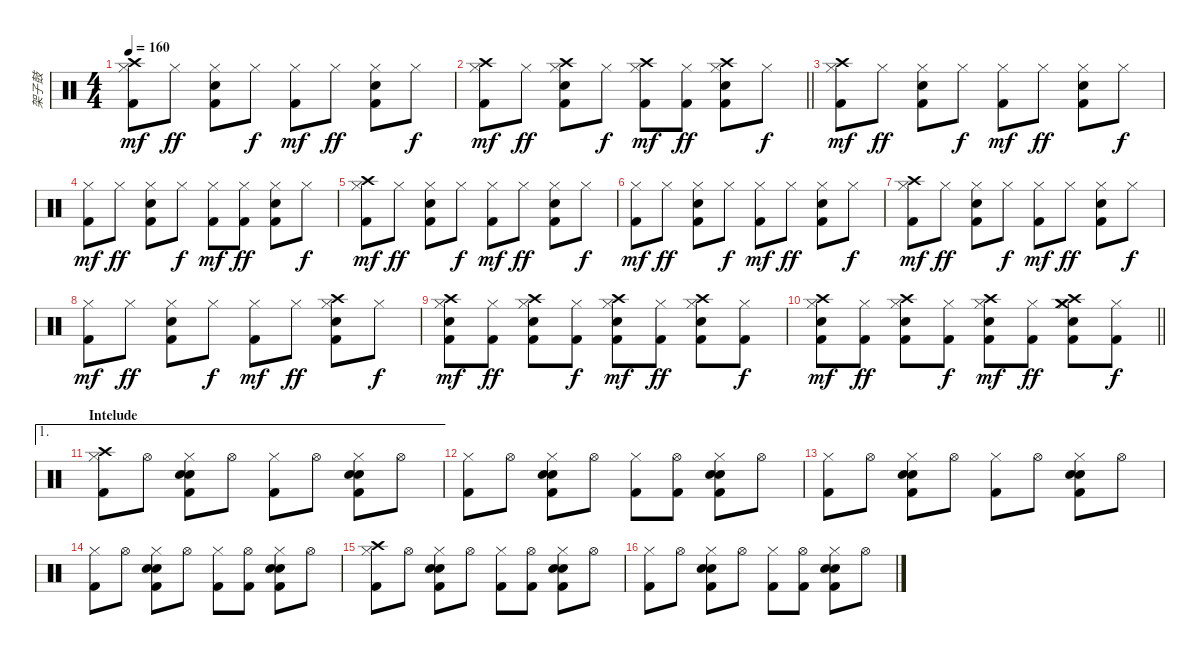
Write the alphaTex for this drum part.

\track ("架子鼓" "架子鼓") {instrument percussion}
\staff {score}
\articulation defaults
\ts (4 4)
\tempo 160
\clef neutral
\ks c
("Hi-Hat (closed)" "Crash high (hit)" "Kick (hit) 2").8{dy mf} "Hi-Hat (closed)".8{dy ff} ("Hi-Hat (closed)" "Electric Snare (hit)" "Kick (hit) 2").8 "Hi-Hat (closed)".8{dy f} ("Hi-Hat (closed)" "Kick (hit) 2").8{dy mf} "Hi-Hat (closed)".8{dy ff} ("Hi-Hat (closed)" "Electric Snare (hit)" "Kick (hit) 2").8 "Hi-Hat (closed)".8{dy f} |
\barLineRight lightlight
("Hi-Hat (closed)" "Crash high (hit)" "Kick (hit) 2").8{dy mf} "Hi-Hat (closed)".8{dy ff} ("Hi-Hat (closed)" "Electric Snare (hit)" "Crash high (hit)" "Kick (hit) 2").8 "Hi-Hat (closed)".8{dy f} ("Hi-Hat (closed)" "Crash high (hit)" "Kick (hit) 2").8{dy mf} ("Hi-Hat (closed)" "Kick (hit) 2").8{dy ff} ("Hi-Hat (closed)" "Electric Snare (hit)" "Crash high (hit)" "Kick (hit) 2").8 "Hi-Hat (closed)".8{dy f} |
("Hi-Hat (closed)" "Crash high (hit)" "Kick (hit) 2").8{dy mf} "Hi-Hat (closed)".8{dy ff} ("Hi-Hat (closed)" "Electric Snare (hit)" "Kick (hit) 2").8 "Hi-Hat (closed)".8{dy f} ("Hi-Hat (closed)" "Kick (hit) 2").8{dy mf} "Hi-Hat (closed)".8{dy ff} ("Hi-Hat (closed)" "Electric Snare (hit)" "Kick (hit) 2").8 "Hi-Hat (closed)".8{dy f} |
("Hi-Hat (closed)" "Kick (hit) 2").8{dy mf} "Hi-Hat (closed)".8{dy ff} ("Hi-Hat (closed)" "Electric Snare (hit)" "Kick (hit) 2").8 "Hi-Hat (closed)".8{dy f} ("Hi-Hat (closed)" "Kick (hit) 2").8{dy mf} ("Hi-Hat (closed)" "Kick (hit) 2").8{dy ff} ("Hi-Hat (closed)" "Electric Snare (hit)" "Kick (hit) 2").8 "Hi-Hat (closed)".8{dy f} |
("Hi-Hat (closed)" "Crash high (hit)" "Kick (hit) 2").8{dy mf} "Hi-Hat (closed)".8{dy ff} ("Hi-Hat (closed)" "Electric Snare (hit)" "Kick (hit) 2").8 "Hi-Hat (closed)".8{dy f} ("Hi-Hat (closed)" "Kick (hit) 2").8{dy mf} "Hi-Hat (closed)".8{dy ff} ("Hi-Hat (closed)" "Electric Snare (hit)" "Kick (hit) 2").8 "Hi-Hat (closed)".8{dy f} |
("Hi-Hat (closed)" "Kick (hit) 2").8{dy mf} "Hi-Hat (closed)".8{dy ff} ("Hi-Hat (closed)" "Electric Snare (hit)" "Kick (hit) 2").8 "Hi-Hat (closed)".8{dy f} ("Hi-Hat (closed)" "Kick (hit) 2").8{dy mf} "Hi-Hat (closed)".8{dy ff} ("Hi-Hat (closed)" "Electric Snare (hit)" "Kick (hit) 2").8 "Hi-Hat (closed)".8{dy f} |
("Hi-Hat (closed)" "Crash high (hit)" "Kick (hit) 2").8{dy mf} "Hi-Hat (closed)".8{dy ff} ("Hi-Hat (closed)" "Electric Snare (hit)" "Kick (hit) 2").8 "Hi-Hat (closed)".8{dy f} ("Hi-Hat (closed)" "Kick (hit) 2").8{dy mf} "Hi-Hat (closed)".8{dy ff} ("Hi-Hat (closed)" "Electric Snare (hit)" "Kick (hit) 2").8 "Hi-Hat (closed)".8{dy f} |
("Hi-Hat (closed)" "Kick (hit) 2").8{dy mf} "Hi-Hat (closed)".8{dy ff} ("Hi-Hat (closed)" "Electric Snare (hit)" "Kick (hit) 2").8 "Hi-Hat (closed)".8{dy f} ("Hi-Hat (closed)" "Kick (hit) 2").8{dy mf} "Hi-Hat (closed)".8{dy ff} ("Hi-Hat (closed)" "Electric Snare (hit)" "Crash high (hit)" "Kick (hit) 2").8 "Hi-Hat (closed)".8{dy f} |
("Hi-Hat (closed)" "Electric Snare (hit)" "Crash high (hit)" "Kick (hit) 2").8{dy mf} ("Hi-Hat (closed)" "Kick (hit) 2").8{dy ff} ("Hi-Hat (closed)" "Electric Snare (hit)" "Crash high (hit)" "Kick (hit) 2").8 ("Hi-Hat (closed)" "Kick (hit) 2").8{dy f} ("Hi-Hat (closed)" "Electric Snare (hit)" "Crash high (hit)" "Kick (hit) 2").8{dy mf} ("Hi-Hat (closed)" "Kick (hit) 2").8{dy ff} ("Hi-Hat (closed)" "Electric Snare (hit)" "Crash high (hit)" "Kick (hit) 2").8 ("Hi-Hat (closed)" "Kick (hit) 2").8{dy f} |
\barLineRight lightlight
("Hi-Hat (closed)" "Electric Snare (hit)" "Crash high (hit)" "Kick (hit) 2").8{dy mf} ("Hi-Hat (closed)" "Kick (hit) 2").8{dy ff} ("Hi-Hat (closed)" "Electric Snare (hit)" "Crash high (hit)" "Kick (hit) 2").8 ("Hi-Hat (closed)" "Kick (hit) 2").8{dy f} ("Hi-Hat (closed)" "Electric Snare (hit)" "Crash high (hit)" "Kick (hit) 2").8{dy mf} ("Hi-Hat (closed)" "Kick (hit) 2").8{dy ff} ("Hi-Hat (closed)" "Electric Snare (hit)" "Crash high (hit)" "Crash medium (hit)" "Kick (hit) 2").8 ("Hi-Hat (closed)" "Kick (hit) 2").8{dy f} |
\ae 1
\section ("" "Intelude")
("Hi-Hat (closed)" "Crash high (hit)" "Kick (hit) 2").8 "Hi-Hat (open)".8 ("Hi-Hat (closed)" "Electric Snare (hit)" "Hand Clap (hit)" "Kick (hit) 2").8 "Hi-Hat (open)".8 ("Hi-Hat (closed)" "Kick (hit) 2").8 "Hi-Hat (open)".8 ("Hi-Hat (closed)" "Electric Snare (hit)" "Hand Clap (hit)" "Kick (hit) 2").8 "Hi-Hat (open)".8 |
("Hi-Hat (closed)" "Kick (hit) 2").8 "Hi-Hat (open)".8 ("Hi-Hat (closed)" "Electric Snare (hit)" "Hand Clap (hit)" "Kick (hit) 2").8 "Hi-Hat (open)".8 ("Hi-Hat (closed)" "Kick (hit) 2").8 ("Hi-Hat (open)" "Kick (hit) 2").8 ("Hi-Hat (closed)" "Electric Snare (hit)" "Hand Clap (hit)" "Kick (hit) 2").8 "Hi-Hat (open)".8 |
("Hi-Hat (closed)" "Kick (hit) 2").8 "Hi-Hat (open)".8 ("Hi-Hat (closed)" "Electric Snare (hit)" "Hand Clap (hit)" "Kick (hit) 2").8 "Hi-Hat (open)".8 ("Hi-Hat (closed)" "Kick (hit) 2").8 "Hi-Hat (open)".8 ("Hi-Hat (closed)" "Electric Snare (hit)" "Hand Clap (hit)" "Kick (hit) 2").8 "Hi-Hat (open)".8 |
("Hi-Hat (closed)" "Kick (hit) 2").8 "Hi-Hat (open)".8 ("Hi-Hat (closed)" "Electric Snare (hit)" "Hand Clap (hit)" "Kick (hit) 2").8 "Hi-Hat (open)".8 ("Hi-Hat (closed)" "Kick (hit) 2").8 ("Hi-Hat (open)" "Kick (hit) 2").8 ("Hi-Hat (closed)" "Electric Snare (hit)" "Hand Clap (hit)" "Kick (hit) 2").8 "Hi-Hat (open)".8 |
("Hi-Hat (closed)" "Crash high (hit)" "Kick (hit) 2").8 "Hi-Hat (open)".8 ("Hi-Hat (closed)" "Electric Snare (hit)" "Hand Clap (hit)" "Kick (hit) 2").8 "Hi-Hat (open)".8 ("Hi-Hat (closed)" "Kick (hit) 2").8 ("Hi-Hat (open)" "Kick (hit) 2").8 ("Hi-Hat (closed)" "Electric Snare (hit)" "Hand Clap (hit)" "Kick (hit) 2").8 "Hi-Hat (open)".8 |
("Hi-Hat (closed)" "Kick (hit) 2").8 "Hi-Hat (open)".8 ("Hi-Hat (closed)" "Electric Snare (hit)" "Hand Clap (hit)" "Kick (hit) 2").8 "Hi-Hat (open)".8 ("Hi-Hat (closed)" "Kick (hit) 2").8 ("Hi-Hat (open)" "Kick (hit) 2").8 ("Hi-Hat (closed)" "Electric Snare (hit)" "Hand Clap (hit)" "Kick (hit) 2").8 "Hi-Hat (open)".8
